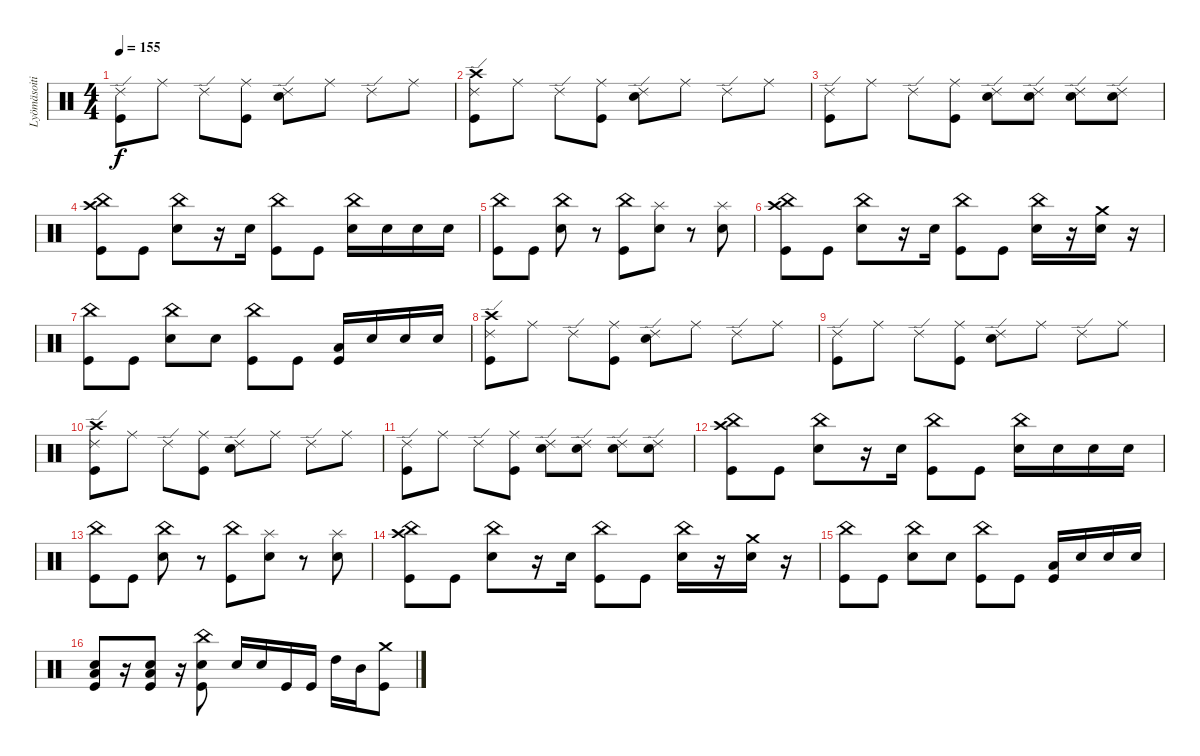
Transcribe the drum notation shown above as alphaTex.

\track ("Lyömäsoitin" "Lyömäsoiti") {instrument percussion}
\staff {score}
\articulation defaults
\ts (4 4)
\tempo 155
\clef neutral
\ks c
("Ride (edge) 2" "Kick (hit)").8{dy f} "Ride (middle)".8 "Ride (edge) 2".8 ("Ride (middle)" "Kick (hit)").8 ("Ride (edge) 2" "Snare (hit) 2").8 "Ride (middle)".8 "Ride (edge) 2".8 "Ride (middle)".8 |
("Crash high (hit)" "Ride (edge) 2" "Kick (hit)").8 "Ride (middle)".8 "Ride (edge) 2".8 ("Ride (middle)" "Kick (hit)").8 ("Ride (edge) 2" "Snare (hit) 2").8 "Ride (middle)".8 "Ride (edge) 2".8 "Ride (middle)".8 |
("Ride (edge) 2" "Kick (hit)").8 "Ride (middle)".8 "Ride (edge) 2".8 ("Ride (middle)" "Kick (hit)").8 ("Ride (edge) 2" "Snare (hit) 2").8 ("Ride (edge) 2" "Snare (hit) 2").8 ("Ride (edge) 2" "Snare (hit) 2").8 ("Ride (edge) 2" "Snare (hit) 2").8 |
("Crash high (hit)" "China (hit)" "Kick (hit)").8 "Kick (hit)".8 ("China (hit)" "Snare (hit) 2").8 r.16 "Snare (hit) 2".16 ("China (hit)" "Kick (hit)").8 "Kick (hit)".8 ("China (hit)" "Snare (hit) 2").16 "Snare (hit) 2".16 "Snare (hit) 2".16 "Snare (hit) 2".16 |
("China (hit)" "Kick (hit)").8 "Kick (hit)".8 ("China (hit)" "Snare (hit) 2").8 r.8 ("China (hit)" "Kick (hit)").8 ("Splash (hit)" "Snare (hit) 2").8 r.8 ("Splash (hit)" "Snare (hit) 2").8 |
("Crash high (hit)" "China (hit)" "Kick (hit)").8 "Kick (hit)".8 ("China (hit)" "Snare (hit) 2").8 r.16 "Snare (hit) 2".16 ("China (hit)" "Kick (hit)").8 "Kick (hit)".8 ("China (hit)" "Snare (hit) 2").16 r.16 ("Crash medium (hit)" "Snare (hit) 2").16 r.16 |
("China (hit)" "Kick (hit)").8 "Kick (hit)".8 ("China (hit)" "Snare (hit) 2").8 "Snare (hit) 2".8 ("China (hit)" "Kick (hit)").8 "Kick (hit)".8 ("Low Tom (hit)" "Kick (hit)").16 "Snare (hit) 2".16 "Snare (hit) 2".16 "Snare (hit) 2".16 |
("Crash high (hit)" "Ride (edge) 2" "Kick (hit)").8 "Ride (middle)".8 "Ride (edge) 2".8 ("Ride (middle)" "Kick (hit)").8 ("Ride (edge) 2" "Snare (hit) 2").8 "Ride (middle)".8 "Ride (edge) 2".8 "Ride (middle)".8 |
("Ride (edge) 2" "Kick (hit)").8 "Ride (middle)".8 "Ride (edge) 2".8 ("Ride (middle)" "Kick (hit)").8 ("Ride (edge) 2" "Snare (hit) 2").8 "Ride (middle)".8 "Ride (edge) 2".8 "Ride (middle)".8 |
("Crash high (hit)" "Ride (edge) 2" "Kick (hit)").8 "Ride (middle)".8 "Ride (edge) 2".8 ("Ride (middle)" "Kick (hit)").8 ("Ride (edge) 2" "Snare (hit) 2").8 "Ride (middle)".8 "Ride (edge) 2".8 "Ride (middle)".8 |
("Ride (edge) 2" "Kick (hit)").8 "Ride (middle)".8 "Ride (edge) 2".8 ("Ride (middle)" "Kick (hit)").8 ("Ride (edge) 2" "Snare (hit) 2").8 ("Ride (edge) 2" "Snare (hit) 2").8 ("Ride (edge) 2" "Snare (hit) 2").8 ("Ride (edge) 2" "Snare (hit) 2").8 |
("Crash high (hit)" "China (hit)" "Kick (hit)").8 "Kick (hit)".8 ("China (hit)" "Snare (hit) 2").8 r.16 "Snare (hit) 2".16 ("China (hit)" "Kick (hit)").8 "Kick (hit)".8 ("China (hit)" "Snare (hit) 2").16 "Snare (hit) 2".16 "Snare (hit) 2".16 "Snare (hit) 2".16 |
("China (hit)" "Kick (hit)").8 "Kick (hit)".8 ("China (hit)" "Snare (hit) 2").8 r.8 ("China (hit)" "Kick (hit)").8 ("Splash (hit)" "Snare (hit) 2").8 r.8 ("Splash (hit)" "Snare (hit) 2").8 |
("Crash high (hit)" "China (hit)" "Kick (hit)").8 "Kick (hit)".8 ("China (hit)" "Snare (hit) 2").8 r.16 "Snare (hit) 2".16 ("China (hit)" "Kick (hit)").8 "Kick (hit)".8 ("China (hit)" "Snare (hit) 2").16 r.16 ("Crash medium (hit)" "Snare (hit) 2").16 r.16 |
("China (hit)" "Kick (hit)").8 "Kick (hit)".8 ("China (hit)" "Snare (hit) 2").8 "Snare (hit) 2".8 ("China (hit)" "Kick (hit)").8 "Kick (hit)".8 ("Low Tom (hit)" "Kick (hit)").16 "Snare (hit) 2".16 "Snare (hit) 2".16 "Snare (hit) 2".16 |
("Kick (hit)" "Low Tom (hit)" "Snare (hit) 2").8 r.16 ("Kick (hit)" "Low Tom (hit)" "Snare (hit) 2").8 r.16 ("Kick (hit)" "China (hit)" "Snare (hit) 2").8 "Snare (hit) 2".16 "Snare (hit) 2".16 "Kick (hit)".16 "Kick (hit)".16 "High Tom (hit)".16 "Mid Tom (hit)".16 ("Crash medium (hit)" "Kick (hit)").8
